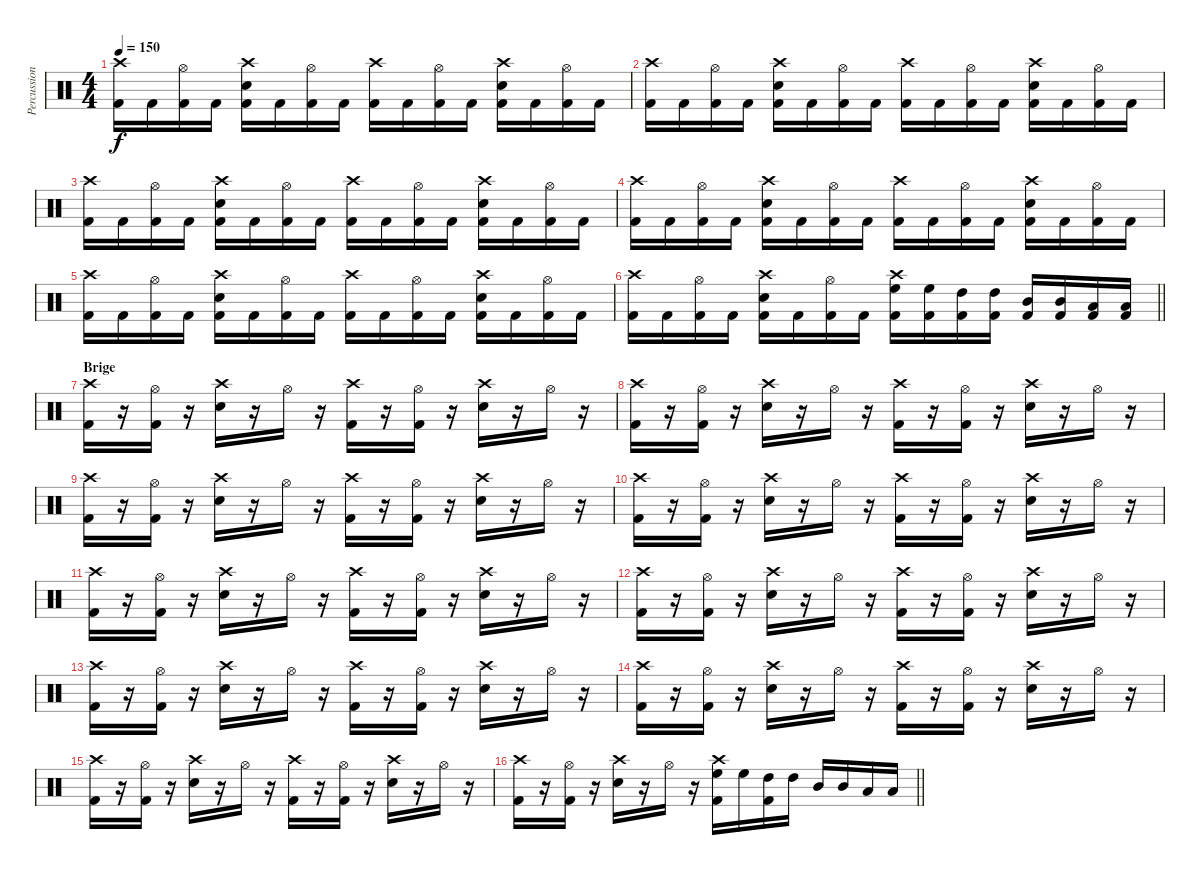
\track ("Percussion" "Percussion") {instrument percussion}
\staff {score}
\articulation defaults
\ts (4 4)
\tempo 150
\clef neutral
\ks c
("Crash high (hit)" "Kick (hit) 2").16{dy f} "Kick (hit) 2".16 ("Hi-Hat (open)" "Kick (hit) 2").16 "Kick (hit) 2".16 ("Crash high (hit)" "Snare (hit) 2" "Kick (hit) 2").16 "Kick (hit) 2".16 ("Hi-Hat (open)" "Kick (hit) 2").16 "Kick (hit) 2".16 ("Crash high (hit)" "Kick (hit) 2").16 "Kick (hit) 2".16 ("Hi-Hat (open)" "Kick (hit) 2").16 "Kick (hit) 2".16 ("Crash high (hit)" "Snare (hit) 2" "Kick (hit) 2").16 "Kick (hit) 2".16 ("Hi-Hat (open)" "Kick (hit) 2").16 "Kick (hit) 2".16 |
("Crash high (hit)" "Kick (hit) 2").16 "Kick (hit) 2".16 ("Hi-Hat (open)" "Kick (hit) 2").16 "Kick (hit) 2".16 ("Crash high (hit)" "Snare (hit) 2" "Kick (hit) 2").16 "Kick (hit) 2".16 ("Hi-Hat (open)" "Kick (hit) 2").16 "Kick (hit) 2".16 ("Crash high (hit)" "Kick (hit) 2").16 "Kick (hit) 2".16 ("Hi-Hat (open)" "Kick (hit) 2").16 "Kick (hit) 2".16 ("Crash high (hit)" "Snare (hit) 2" "Kick (hit) 2").16 "Kick (hit) 2".16 ("Hi-Hat (open)" "Kick (hit) 2").16 "Kick (hit) 2".16 |
("Crash high (hit)" "Kick (hit) 2").16 "Kick (hit) 2".16 ("Hi-Hat (open)" "Kick (hit) 2").16 "Kick (hit) 2".16 ("Crash high (hit)" "Snare (hit) 2" "Kick (hit) 2").16 "Kick (hit) 2".16 ("Hi-Hat (open)" "Kick (hit) 2").16 "Kick (hit) 2".16 ("Crash high (hit)" "Kick (hit) 2").16 "Kick (hit) 2".16 ("Hi-Hat (open)" "Kick (hit) 2").16 "Kick (hit) 2".16 ("Crash high (hit)" "Snare (hit) 2" "Kick (hit) 2").16 "Kick (hit) 2".16 ("Hi-Hat (open)" "Kick (hit) 2").16 "Kick (hit) 2".16 |
("Crash high (hit)" "Kick (hit) 2").16 "Kick (hit) 2".16 ("Hi-Hat (open)" "Kick (hit) 2").16 "Kick (hit) 2".16 ("Crash high (hit)" "Snare (hit) 2" "Kick (hit) 2").16 "Kick (hit) 2".16 ("Hi-Hat (open)" "Kick (hit) 2").16 "Kick (hit) 2".16 ("Crash high (hit)" "Kick (hit) 2").16 "Kick (hit) 2".16 ("Hi-Hat (open)" "Kick (hit) 2").16 "Kick (hit) 2".16 ("Crash high (hit)" "Snare (hit) 2" "Kick (hit) 2").16 "Kick (hit) 2".16 ("Hi-Hat (open)" "Kick (hit) 2").16 "Kick (hit) 2".16 |
("Crash high (hit)" "Kick (hit) 2").16 "Kick (hit) 2".16 ("Hi-Hat (open)" "Kick (hit) 2").16 "Kick (hit) 2".16 ("Crash high (hit)" "Snare (hit) 2" "Kick (hit) 2").16 "Kick (hit) 2".16 ("Hi-Hat (open)" "Kick (hit) 2").16 "Kick (hit) 2".16 ("Crash high (hit)" "Kick (hit) 2").16 "Kick (hit) 2".16 ("Hi-Hat (open)" "Kick (hit) 2").16 "Kick (hit) 2".16 ("Crash high (hit)" "Snare (hit) 2" "Kick (hit) 2").16 "Kick (hit) 2".16 ("Hi-Hat (open)" "Kick (hit) 2").16 "Kick (hit) 2".16 |
\barLineRight lightlight
("Crash high (hit)" "Kick (hit) 2").16 "Kick (hit) 2".16 ("Hi-Hat (open)" "Kick (hit) 2").16 "Kick (hit) 2".16 ("Crash high (hit)" "Snare (hit) 2" "Kick (hit) 2").16 "Kick (hit) 2".16 ("Hi-Hat (open)" "Kick (hit) 2").16 "Kick (hit) 2".16 ("Crash high (hit)" "High Floor Tom (hit)" "Kick (hit) 2").16 ("High Floor Tom (hit)" "Kick (hit) 2").16 ("High Tom (hit)" "Kick (hit) 2").16 ("High Tom (hit)" "Kick (hit) 2").16 ("Mid Tom (hit)" "Kick (hit) 2").16 ("Mid Tom (hit)" "Kick (hit) 2").16 ("Low Tom (hit)" "Kick (hit) 2").16 ("Low Tom (hit)" "Kick (hit) 2").16 |
\section ("" "Brige")
("Crash high (hit)" "Kick (hit) 2").16 r.16 ("Hi-Hat (open)" "Kick (hit) 2").16 r.16 ("Crash high (hit)" "Snare (hit) 2").16 r.16 "Hi-Hat (open)".16 r.16 ("Crash high (hit)" "Kick (hit) 2").16 r.16 ("Hi-Hat (open)" "Kick (hit) 2").16 r.16 ("Crash high (hit)" "Snare (hit) 2").16 r.16 "Hi-Hat (open)".16 r.16 |
("Crash high (hit)" "Kick (hit) 2").16 r.16 ("Hi-Hat (open)" "Kick (hit) 2").16 r.16 ("Crash high (hit)" "Snare (hit) 2").16 r.16 "Hi-Hat (open)".16 r.16 ("Crash high (hit)" "Kick (hit) 2").16 r.16 ("Hi-Hat (open)" "Kick (hit) 2").16 r.16 ("Crash high (hit)" "Snare (hit) 2").16 r.16 "Hi-Hat (open)".16 r.16 |
("Crash high (hit)" "Kick (hit) 2").16 r.16 ("Hi-Hat (open)" "Kick (hit) 2").16 r.16 ("Crash high (hit)" "Snare (hit) 2").16 r.16 "Hi-Hat (open)".16 r.16 ("Crash high (hit)" "Kick (hit) 2").16 r.16 ("Hi-Hat (open)" "Kick (hit) 2").16 r.16 ("Crash high (hit)" "Snare (hit) 2").16 r.16 "Hi-Hat (open)".16 r.16 |
("Crash high (hit)" "Kick (hit) 2").16 r.16 ("Hi-Hat (open)" "Kick (hit) 2").16 r.16 ("Crash high (hit)" "Snare (hit) 2").16 r.16 "Hi-Hat (open)".16 r.16 ("Crash high (hit)" "Kick (hit) 2").16 r.16 ("Hi-Hat (open)" "Kick (hit) 2").16 r.16 ("Crash high (hit)" "Snare (hit) 2").16 r.16 "Hi-Hat (open)".16 r.16 |
("Crash high (hit)" "Kick (hit) 2").16 r.16 ("Hi-Hat (open)" "Kick (hit) 2").16 r.16 ("Crash high (hit)" "Snare (hit) 2").16 r.16 "Hi-Hat (open)".16 r.16 ("Crash high (hit)" "Kick (hit) 2").16 r.16 ("Hi-Hat (open)" "Kick (hit) 2").16 r.16 ("Crash high (hit)" "Snare (hit) 2").16 r.16 "Hi-Hat (open)".16 r.16 |
("Crash high (hit)" "Kick (hit) 2").16 r.16 ("Hi-Hat (open)" "Kick (hit) 2").16 r.16 ("Crash high (hit)" "Snare (hit) 2").16 r.16 "Hi-Hat (open)".16 r.16 ("Crash high (hit)" "Kick (hit) 2").16 r.16 ("Hi-Hat (open)" "Kick (hit) 2").16 r.16 ("Crash high (hit)" "Snare (hit) 2").16 r.16 "Hi-Hat (open)".16 r.16 |
("Crash high (hit)" "Kick (hit) 2").16 r.16 ("Hi-Hat (open)" "Kick (hit) 2").16 r.16 ("Crash high (hit)" "Snare (hit) 2").16 r.16 "Hi-Hat (open)".16 r.16 ("Crash high (hit)" "Kick (hit) 2").16 r.16 ("Hi-Hat (open)" "Kick (hit) 2").16 r.16 ("Crash high (hit)" "Snare (hit) 2").16 r.16 "Hi-Hat (open)".16 r.16 |
("Crash high (hit)" "Kick (hit) 2").16 r.16 ("Hi-Hat (open)" "Kick (hit) 2").16 r.16 ("Crash high (hit)" "Snare (hit) 2").16 r.16 "Hi-Hat (open)".16 r.16 ("Crash high (hit)" "Kick (hit) 2").16 r.16 ("Hi-Hat (open)" "Kick (hit) 2").16 r.16 ("Crash high (hit)" "Snare (hit) 2").16 r.16 "Hi-Hat (open)".16 r.16 |
("Crash high (hit)" "Kick (hit) 2").16 r.16 ("Hi-Hat (open)" "Kick (hit) 2").16 r.16 ("Crash high (hit)" "Snare (hit) 2").16 r.16 "Hi-Hat (open)".16 r.16 ("Crash high (hit)" "Kick (hit) 2").16 r.16 ("Hi-Hat (open)" "Kick (hit) 2").16 r.16 ("Crash high (hit)" "Snare (hit) 2").16 r.16 "Hi-Hat (open)".16 r.16 |
\barLineRight lightlight
("Crash high (hit)" "Kick (hit) 2").16 r.16 ("Hi-Hat (open)" "Kick (hit) 2").16 r.16 ("Crash high (hit)" "Snare (hit) 2").16 r.16 "Hi-Hat (open)".16 r.16 ("Crash high (hit)" "High Floor Tom (hit)" "Kick (hit) 2").16 "High Floor Tom (hit)".16 ("High Tom (hit)" "Kick (hit) 2").16 "High Tom (hit)".16 "Mid Tom (hit)".16 "Mid Tom (hit)".16 "Low Tom (hit)".16 "Low Tom (hit)".16
